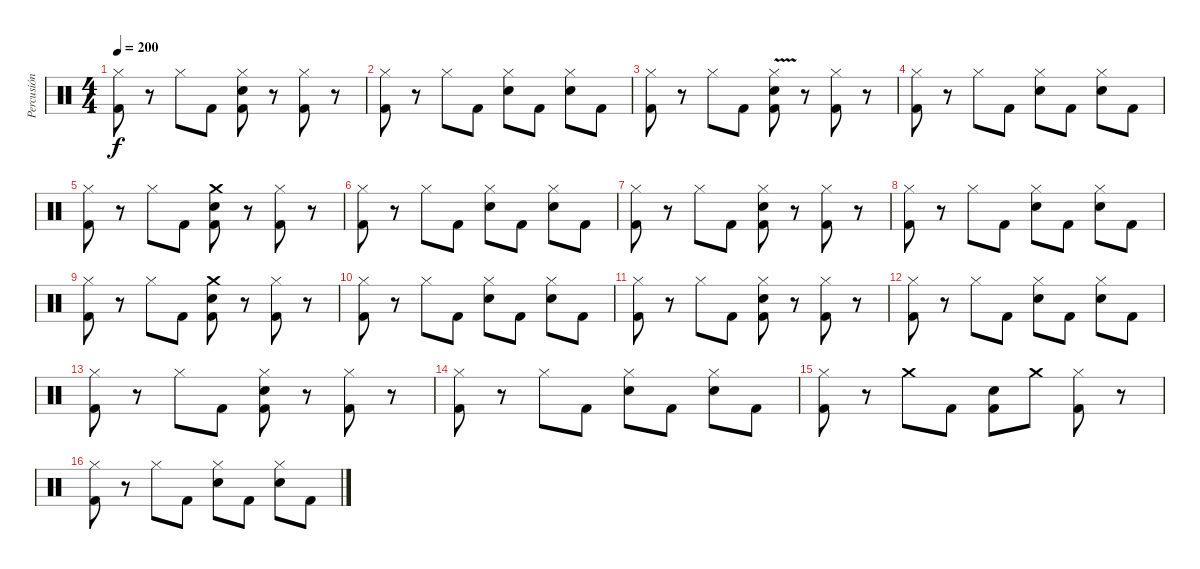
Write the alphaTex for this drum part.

\track ("Percusión" "Percusión") {instrument percussion}
\staff {score}
\articulation defaults
\ts (4 4)
\tempo 200
\clef neutral
\ks c
("Hi-Hat (closed)" "Kick (hit) 2").8{dy f} r.8 "Hi-Hat (closed)".8 "Kick (hit) 2".8 ("Hi-Hat (closed)" "Snare (hit) 2" "Kick (hit) 2").8 r.8 ("Hi-Hat (closed)" "Kick (hit) 2").8 r.8 |
("Hi-Hat (closed)" "Kick (hit) 2").8 r.8 "Hi-Hat (closed)".8 "Kick (hit) 2".8 ("Hi-Hat (closed)" "Snare (hit) 2").8 "Kick (hit) 2".8 ("Hi-Hat (closed)" "Snare (hit) 2").8 "Kick (hit) 2".8 |
("Hi-Hat (closed)" "Kick (hit) 2").8 r.8 "Hi-Hat (closed)".8 "Kick (hit) 2".8 ("Hi-Hat (closed)"{v} "Snare (hit) 2" "Kick (hit) 2").8 r.8 ("Hi-Hat (closed)" "Kick (hit) 2").8 r.8 |
("Hi-Hat (closed)" "Kick (hit) 2").8 r.8 "Hi-Hat (closed)".8 "Kick (hit) 2".8 ("Hi-Hat (closed)" "Snare (hit) 2").8 "Kick (hit) 2".8 ("Hi-Hat (closed)" "Snare (hit) 2").8 "Kick (hit) 2".8 |
("Hi-Hat (closed)" "Kick (hit) 2").8 r.8 "Hi-Hat (closed)".8 "Kick (hit) 2".8 ("Crash medium (hit)" "Snare (hit) 2" "Kick (hit) 2").8 r.8 ("Hi-Hat (closed)" "Kick (hit) 2").8 r.8 |
("Hi-Hat (closed)" "Kick (hit) 2").8 r.8 "Hi-Hat (closed)".8 "Kick (hit) 2".8 ("Hi-Hat (closed)" "Snare (hit) 2").8 "Kick (hit) 2".8 ("Hi-Hat (closed)" "Snare (hit) 2").8 "Kick (hit) 2".8 |
("Hi-Hat (closed)" "Kick (hit) 2").8 r.8 "Hi-Hat (closed)".8 "Kick (hit) 2".8 ("Hi-Hat (closed)" "Snare (hit) 2" "Kick (hit) 2").8 r.8 ("Hi-Hat (closed)" "Kick (hit) 2").8 r.8 |
("Hi-Hat (closed)" "Kick (hit) 2").8 r.8 "Hi-Hat (closed)".8 "Kick (hit) 2".8 ("Hi-Hat (closed)" "Snare (hit) 2").8 "Kick (hit) 2".8 ("Hi-Hat (closed)" "Snare (hit) 2").8 "Kick (hit) 2".8 |
("Hi-Hat (closed)" "Kick (hit) 2").8 r.8 "Hi-Hat (closed)".8 "Kick (hit) 2".8 ("Crash medium (hit)" "Snare (hit) 2" "Kick (hit) 2").8 r.8 ("Hi-Hat (closed)" "Kick (hit) 2").8 r.8 |
("Hi-Hat (closed)" "Kick (hit) 2").8 r.8 "Hi-Hat (closed)".8 "Kick (hit) 2".8 ("Hi-Hat (closed)" "Snare (hit) 2").8 "Kick (hit) 2".8 ("Hi-Hat (closed)" "Snare (hit) 2").8 "Kick (hit) 2".8 |
("Hi-Hat (closed)" "Kick (hit) 2").8 r.8 "Hi-Hat (closed)".8 "Kick (hit) 2".8 ("Hi-Hat (closed)" "Snare (hit) 2" "Kick (hit) 2").8 r.8 ("Hi-Hat (closed)" "Kick (hit) 2").8 r.8 |
("Hi-Hat (closed)" "Kick (hit) 2").8 r.8 "Hi-Hat (closed)".8 "Kick (hit) 2".8 ("Hi-Hat (closed)" "Snare (hit) 2").8 "Kick (hit) 2".8 ("Hi-Hat (closed)" "Snare (hit) 2").8 "Kick (hit) 2".8 |
("Hi-Hat (closed)" "Kick (hit) 2").8 r.8 "Hi-Hat (closed)".8 "Kick (hit) 2".8 ("Hi-Hat (closed)" "Snare (hit) 2" "Kick (hit) 2").8 r.8 ("Hi-Hat (closed)" "Kick (hit) 2").8 r.8 |
("Hi-Hat (closed)" "Kick (hit) 2").8 r.8 "Hi-Hat (closed)".8 "Kick (hit) 2".8 ("Hi-Hat (closed)" "Snare (hit) 2").8 "Kick (hit) 2".8 ("Hi-Hat (closed)" "Snare (hit) 2").8 "Kick (hit) 2".8 |
("Hi-Hat (closed)" "Kick (hit) 2").8 r.8 "Crash medium (hit)".8 "Kick (hit) 2".8 ("Snare (hit) 2" "Kick (hit) 2").8 "Crash medium (hit)".8 ("Hi-Hat (closed)" "Kick (hit) 2").8 r.8 |
("Hi-Hat (closed)" "Kick (hit) 2").8 r.8 "Hi-Hat (closed)".8 "Kick (hit) 2".8 ("Hi-Hat (closed)" "Snare (hit) 2").8 "Kick (hit) 2".8 ("Hi-Hat (closed)" "Snare (hit) 2").8 "Kick (hit) 2".8
